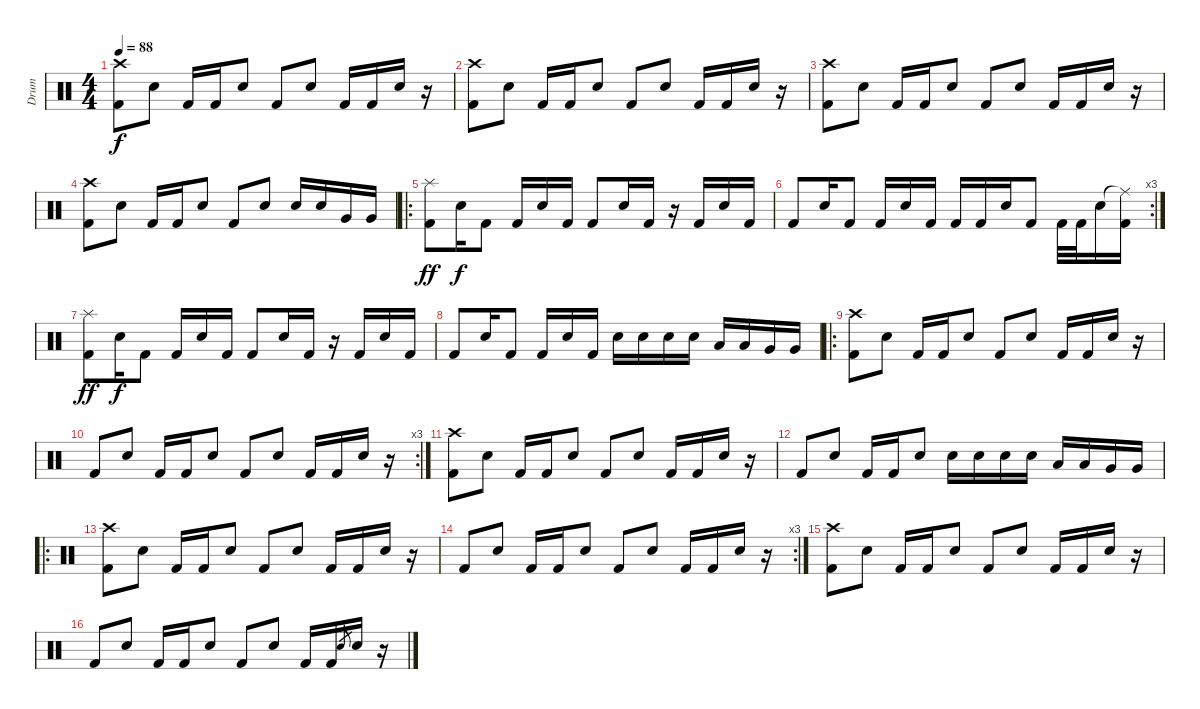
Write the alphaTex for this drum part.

\track ("Drum" "Drum") {instrument percussion}
\staff {score}
\articulation defaults
\ts (4 4)
\tempo 88
\clef neutral
\ks c
("Crash high (hit)" "Kick (hit) 2").8{dy f} "Electric Snare (hit)".8 "Kick (hit) 2".16 "Kick (hit) 2".16 "Electric Snare (hit)".8 "Kick (hit) 2".8 "Electric Snare (hit)".8 "Kick (hit) 2".16 "Kick (hit) 2".16 "Electric Snare (hit)".16 r.16 |
("Crash high (hit)" "Kick (hit) 2").8 "Electric Snare (hit)".8 "Kick (hit) 2".16 "Kick (hit) 2".16 "Electric Snare (hit)".8 "Kick (hit) 2".8 "Electric Snare (hit)".8 "Kick (hit) 2".16 "Kick (hit) 2".16 "Electric Snare (hit)".16 r.16 |
("Crash high (hit)" "Kick (hit) 2").8 "Electric Snare (hit)".8 "Kick (hit) 2".16 "Kick (hit) 2".16 "Electric Snare (hit)".8 "Kick (hit) 2".8 "Electric Snare (hit)".8 "Kick (hit) 2".16 "Kick (hit) 2".16 "Electric Snare (hit)".16 r.16 |
("Crash high (hit)" "Kick (hit) 2").8 "Electric Snare (hit)".8 "Kick (hit) 2".16 "Kick (hit) 2".16 "Electric Snare (hit)".8 "Kick (hit) 2".8 "Electric Snare (hit)".8 "Electric Snare (hit)".16 "Electric Snare (hit)".16 "Very Low Tom (hit)".16 "Very Low Tom (hit)".16 |
\ro
("Splash (hit)" "Kick (hit) 2").8{dy ff} "Electric Snare (hit)".16{dy f} "Kick (hit) 2".8 "Kick (hit) 2".16 "Electric Snare (hit)".16 "Kick (hit) 2".16 "Kick (hit) 2".8 "Electric Snare (hit)".16 "Kick (hit) 2".16 r.16 "Kick (hit) 2".16 "Electric Snare (hit)".16 "Kick (hit) 2".16 |
\rc 3 "Kick (hit) 2".8 "Electric Snare (hit)".16 "Kick (hit) 2".8 "Kick (hit) 2".16 "Electric Snare (hit)".16 "Kick (hit) 2".16 "Kick (hit) 2".16 "Kick (hit) 2".16 "Electric Snare (hit)".16 "Kick (hit) 2".8 "Kick (hit) 2".32 "Kick (hit) 2".32 "Electric Snare (hit)".16
("Ride (middle)"{t} "Kick (hit) 2").16 |
("Splash (hit)" "Kick (hit) 2").8{dy ff} "Electric Snare (hit)".16{dy f} "Kick (hit) 2".8 "Kick (hit) 2".16 "Electric Snare (hit)".16 "Kick (hit) 2".16 "Kick (hit) 2".8 "Electric Snare (hit)".16 "Kick (hit) 2".16 r.16 "Kick (hit) 2".16 "Electric Snare (hit)".16 "Kick (hit) 2".16 |
"Kick (hit) 2".8 "Electric Snare (hit)".16 "Kick (hit) 2".8 "Kick (hit) 2".16 "Electric Snare (hit)".16 "Kick (hit) 2".16 "Electric Snare (hit)".16 "Electric Snare (hit)".16 "Electric Snare (hit)".16 "Electric Snare (hit)".16 "Low Tom (hit)".16 "Low Tom (hit)".16 "Very Low Tom (hit)".16 "Very Low Tom (hit)".16 |
\ro
("Crash high (hit)" "Kick (hit) 2").8 "Electric Snare (hit)".8 "Kick (hit) 2".16 "Kick (hit) 2".16 "Electric Snare (hit)".8 "Kick (hit) 2".8 "Electric Snare (hit)".8 "Kick (hit) 2".16 "Kick (hit) 2".16 "Electric Snare (hit)".16 r.16 |
\rc 3 "Kick (hit) 2".8 "Electric Snare (hit)".8 "Kick (hit) 2".16 "Kick (hit) 2".16 "Electric Snare (hit)".8 "Kick (hit) 2".8 "Electric Snare (hit)".8 "Kick (hit) 2".16 "Kick (hit) 2".16 "Electric Snare (hit)".16
r.16 |
("Crash high (hit)" "Kick (hit) 2").8 "Electric Snare (hit)".8 "Kick (hit) 2".16 "Kick (hit) 2".16 "Electric Snare (hit)".8 "Kick (hit) 2".8 "Electric Snare (hit)".8 "Kick (hit) 2".16 "Kick (hit) 2".16 "Electric Snare (hit)".16 r.16 |
"Kick (hit) 2".8 "Electric Snare (hit)".8 "Kick (hit) 2".16 "Kick (hit) 2".16 "Electric Snare (hit)".8 "Electric Snare (hit)".16 "Electric Snare (hit)".16 "Electric Snare (hit)".16 "Electric Snare (hit)".16 "Low Tom (hit)".16 "Low Tom (hit)".16 "Very Low Tom (hit)".16 "Very Low Tom (hit)".16 |
\ro
("Crash high (hit)" "Kick (hit) 2").8 "Electric Snare (hit)".8 "Kick (hit) 2".16 "Kick (hit) 2".16 "Electric Snare (hit)".8 "Kick (hit) 2".8 "Electric Snare (hit)".8 "Kick (hit) 2".16 "Kick (hit) 2".16 "Electric Snare (hit)".16 r.16 |
\rc 3 "Kick (hit) 2".8 "Electric Snare (hit)".8 "Kick (hit) 2".16 "Kick (hit) 2".16 "Electric Snare (hit)".8 "Kick (hit) 2".8 "Electric Snare (hit)".8 "Kick (hit) 2".16 "Kick (hit) 2".16 "Electric Snare (hit)".16
r.16 |
("Crash high (hit)" "Kick (hit) 2").8 "Electric Snare (hit)".8 "Kick (hit) 2".16 "Kick (hit) 2".16 "Electric Snare (hit)".8 "Kick (hit) 2".8 "Electric Snare (hit)".8 "Kick (hit) 2".16 "Kick (hit) 2".16 "Electric Snare (hit)".16 r.16 |
"Kick (hit) 2".8 "Electric Snare (hit)".8 "Kick (hit) 2".16 "Kick (hit) 2".16 "Electric Snare (hit)".8 "Kick (hit) 2".8 "Electric Snare (hit)".8 "Kick (hit) 2".16 "Kick (hit) 2".16 "Electric Snare (hit)".8{gr} "Electric Snare (hit)".16 r.16
